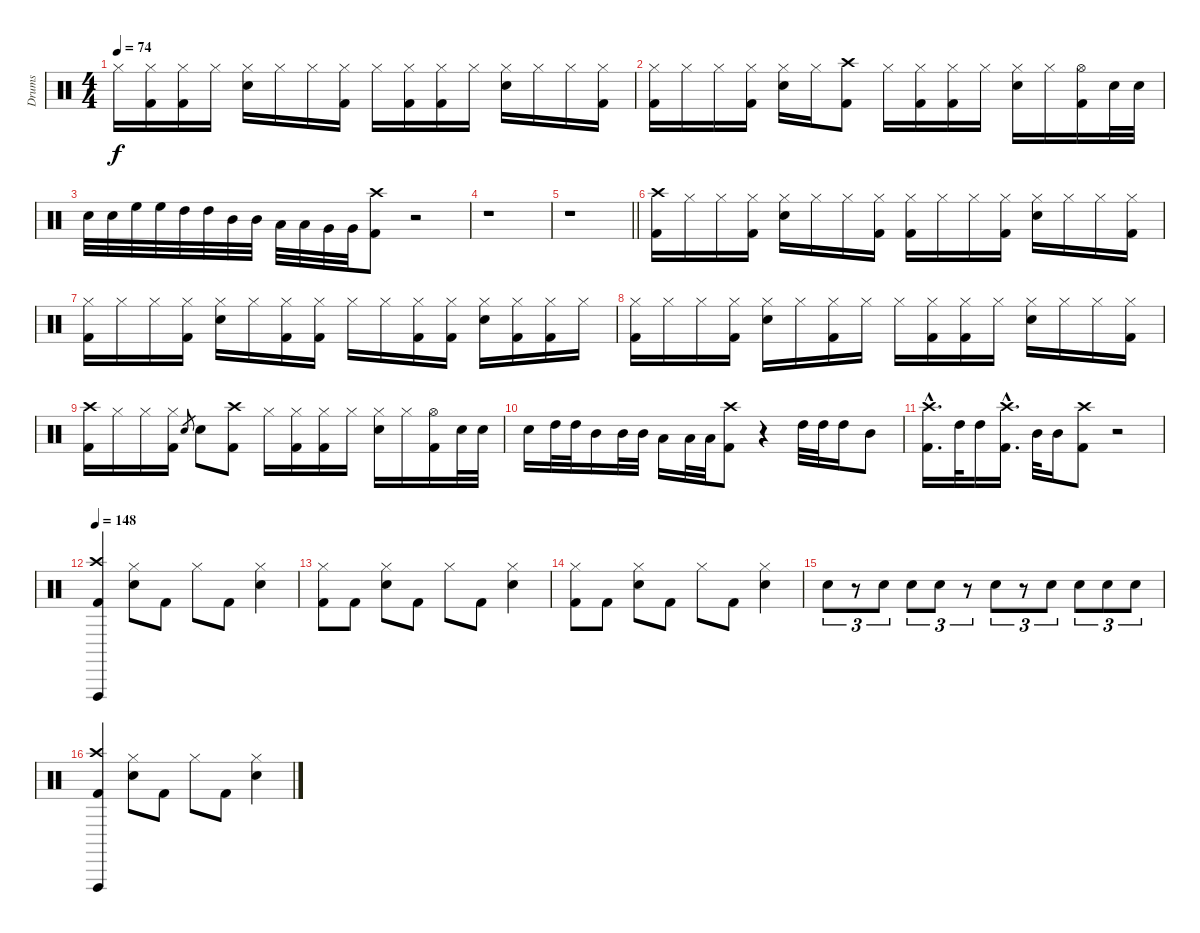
\track ("Drums" "Drums") {instrument percussion}
\staff {score}
\articulation defaults
\ts (4 4)
\tempo 74
\clef neutral
\ks c "Hi-Hat (closed)".16{dy f}
("Hi-Hat (closed)" "Kick (hit) 2").16 ("Hi-Hat (closed)" "Kick (hit) 2").16 "Hi-Hat (closed)".16 ("Hi-Hat (closed)" "Snare (hit) 2").16 "Hi-Hat (closed)".16 "Hi-Hat (closed)".16 ("Hi-Hat (closed)" "Kick (hit) 2").16 "Hi-Hat (closed)".16 ("Hi-Hat (closed)" "Kick (hit) 2").16 ("Hi-Hat (closed)" "Kick (hit) 2").16 "Hi-Hat (closed)".16 ("Hi-Hat (closed)" "Snare (hit) 2").16 "Hi-Hat (closed)".16 "Hi-Hat (closed)".16 ("Hi-Hat (closed)" "Kick (hit) 2").16 |
("Hi-Hat (closed)" "Kick (hit) 2").16 "Hi-Hat (closed)".16 "Hi-Hat (closed)".16 ("Hi-Hat (closed)" "Kick (hit) 2").16 ("Hi-Hat (closed)" "Snare (hit) 2").16 "Hi-Hat (closed)".16 ("Crash high (hit)" "Kick (hit) 2").8 "Hi-Hat (closed)".16 ("Hi-Hat (closed)" "Kick (hit) 2").16 ("Hi-Hat (closed)" "Kick (hit) 2").16 "Hi-Hat (closed)".16 ("Hi-Hat (closed)" "Snare (hit) 2").16 "Hi-Hat (closed)".16 ("Hi-Hat (open)" "Kick (hit) 2").16 "Snare (hit) 2".32 "Snare (hit) 2".32 |
"Snare (hit) 2".32 "Snare (hit) 2".32 "High Floor Tom (hit)".32 "High Floor Tom (hit)".32 "High Tom (hit)".32 "High Tom (hit)".32 "Mid Tom (hit)".32 "Mid Tom (hit)".32 "Low Tom (hit)".32 "Low Tom (hit)".32 "Very Low Tom (hit)".32 "Very Low Tom (hit)".32 ("Crash high (hit)" "Kick (hit) 2").8 r.2 |
r.1 |
\barLineRight lightlight
r.1 |
("Crash high (hit)" "Kick (hit) 2").16 "Hi-Hat (closed)".16 "Hi-Hat (closed)".16 ("Hi-Hat (closed)" "Kick (hit) 2").16 ("Hi-Hat (closed)" "Snare (hit) 2").16 "Hi-Hat (closed)".16 "Hi-Hat (closed)".16 ("Hi-Hat (closed)" "Kick (hit) 2").16 ("Hi-Hat (closed)" "Kick (hit) 2").16 "Hi-Hat (closed)".16 "Hi-Hat (closed)".16 ("Hi-Hat (closed)" "Kick (hit) 2").16 ("Hi-Hat (closed)" "Snare (hit) 2").16 "Hi-Hat (closed)".16 "Hi-Hat (closed)".16 ("Hi-Hat (closed)" "Kick (hit) 2").16 |
("Hi-Hat (closed)" "Kick (hit) 2").16 "Hi-Hat (closed)".16 "Hi-Hat (closed)".16 ("Hi-Hat (closed)" "Kick (hit) 2").16 ("Hi-Hat (closed)" "Snare (hit) 2").16 "Hi-Hat (closed)".16 ("Hi-Hat (closed)" "Kick (hit) 2").16 ("Hi-Hat (closed)" "Kick (hit) 2").16 "Hi-Hat (closed)".16 "Hi-Hat (closed)".16 ("Hi-Hat (closed)" "Kick (hit) 2").16 ("Hi-Hat (closed)" "Kick (hit) 2").16 ("Hi-Hat (closed)" "Snare (hit) 2").16 ("Hi-Hat (closed)" "Kick (hit) 2").16 ("Hi-Hat (closed)" "Kick (hit) 2").16 "Hi-Hat (closed)".16 |
("Hi-Hat (closed)" "Kick (hit) 2").16 "Hi-Hat (closed)".16 "Hi-Hat (closed)".16 ("Hi-Hat (closed)" "Kick (hit) 2").16 ("Hi-Hat (closed)" "Snare (hit) 2").16 "Hi-Hat (closed)".16 ("Hi-Hat (closed)" "Kick (hit) 2").16 "Hi-Hat (closed)".16 "Hi-Hat (closed)".16 ("Hi-Hat (closed)" "Kick (hit) 2").16 ("Hi-Hat (closed)" "Kick (hit) 2").16 "Hi-Hat (closed)".16 ("Hi-Hat (closed)" "Snare (hit) 2").16 "Hi-Hat (closed)".16 "Hi-Hat (closed)".16 ("Hi-Hat (closed)" "Kick (hit) 2").16 |
("Crash high (hit)" "Kick (hit) 2").16 "Hi-Hat (closed)".16 "Hi-Hat (closed)".16 ("Hi-Hat (closed)" "Kick (hit) 2").16 "Snare (hit) 2".8{gr} "Snare (hit) 2".8 ("Crash high (hit)" "Kick (hit) 2").8 "Hi-Hat (closed)".16 ("Hi-Hat (closed)" "Kick (hit) 2").16 ("Hi-Hat (closed)" "Kick (hit) 2").16 "Hi-Hat (closed)".16 ("Hi-Hat (closed)" "Snare (hit) 2").16 "Hi-Hat (closed)".16 ("Hi-Hat (open)" "Kick (hit) 2").16 "Snare (hit) 2".32 "Snare (hit) 2".32 |
"Snare (hit) 2".16 "High Tom (hit)".32 "High Tom (hit)".32 "Mid Tom (hit)".16 "Mid Tom (hit)".32 "Mid Tom (hit)".32 "Low Tom (hit)".16 "Low Tom (hit)".32 "Low Tom (hit)".32 ("Crash high (hit)" "Kick (hit) 2").8 r.4 "High Tom (hit)".32 "High Tom (hit)".32 "High Tom (hit)".16 "Mid Tom (hit)".8 |
("Crash high (hit)"{hac} "Kick (hit) 2"{hac}).16{d} "High Tom (hit)".32 "High Tom (hit)".16 ("Crash high (hit)"{hac} "Kick (hit) 2"{hac}).16{d} "Mid Tom (hit)".32 "Mid Tom (hit)".16 ("Crash high (hit)" "Kick (hit) 2").8 r.2 |
\tempo 148
("Crash high (hit)" "Vibraslap (hit)" "Kick (hit) 2").4 ("Hi-Hat (closed)" "Snare (hit) 2").8 "Kick (hit) 2".8 "Hi-Hat (closed)".8 "Kick (hit) 2".8 ("Hi-Hat (closed)" "Snare (hit) 2").4 |
("Hi-Hat (closed)" "Kick (hit) 2").8 "Kick (hit) 2".8 ("Hi-Hat (closed)" "Snare (hit) 2").8 "Kick (hit) 2".8 "Hi-Hat (closed)".8 "Kick (hit) 2".8 ("Hi-Hat (closed)" "Snare (hit) 2").4 |
("Hi-Hat (closed)" "Kick (hit) 2").8 "Kick (hit) 2".8 ("Hi-Hat (closed)" "Snare (hit) 2").8 "Kick (hit) 2".8 "Hi-Hat (closed)".8 "Kick (hit) 2".8 ("Hi-Hat (closed)" "Snare (hit) 2").4 |
"Snare (hit) 2".8{tu (3 2)} r.8{tu (3 2)} "Snare (hit) 2".8{tu (3 2)} "Snare (hit) 2".8{tu (3 2)} "Snare (hit) 2".8{tu (3 2)} r.8{tu (3 2)} "Snare (hit) 2".8{tu (3 2)} r.8{tu (3 2)} "Snare (hit) 2".8{tu (3 2)} "Snare (hit) 2".8{tu (3 2)} "Snare (hit) 2".8{tu (3 2)} "Snare (hit) 2".8{tu (3 2)} |
("Crash high (hit)" "Vibraslap (hit)" "Kick (hit) 2").4 ("Hi-Hat (closed)" "Snare (hit) 2").8 "Kick (hit) 2".8 "Hi-Hat (closed)".8 "Kick (hit) 2".8 ("Hi-Hat (closed)" "Snare (hit) 2").4
